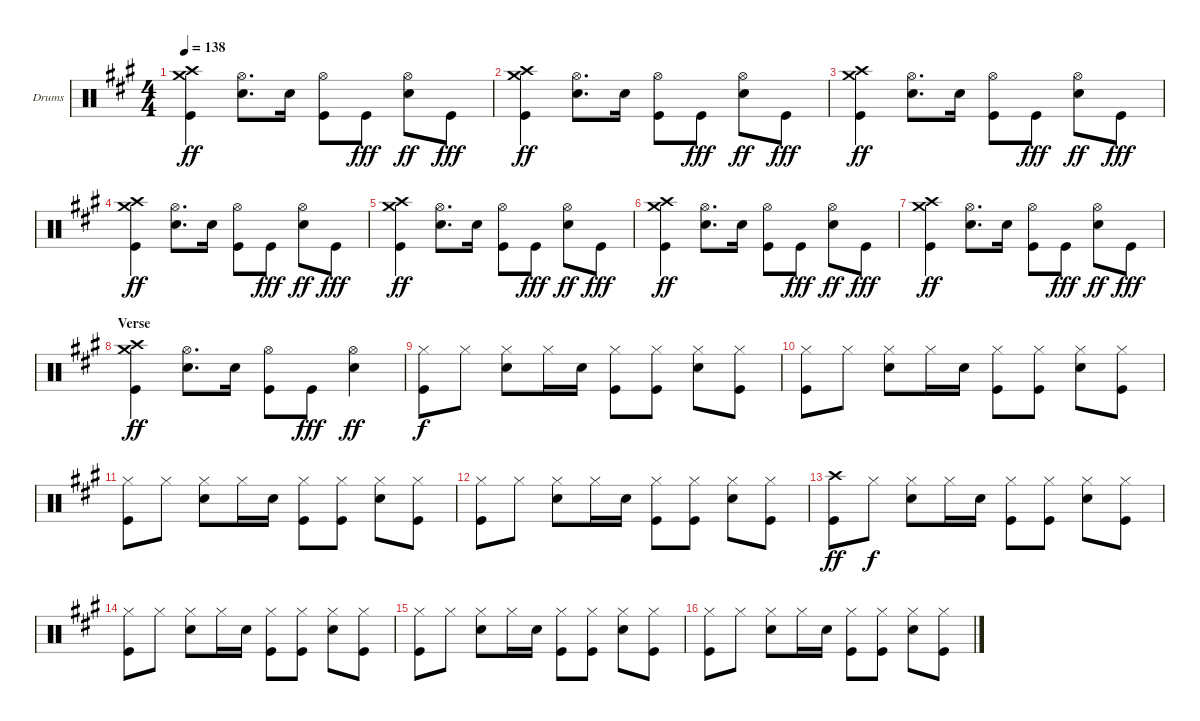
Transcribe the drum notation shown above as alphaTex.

\defaultSystemsLayout 4
\bracketExtendMode groupsimilarinstruments
\firstSystemTrackNameOrientation horizontal
\otherSystemsTrackNameOrientation horizontal
\track ("Drumkit" "Drums") {instrument percussion}
\staff {score}
\articulation defaults
\ts (4 4)
\tempo 138
\clef neutral
\scale
1.05801
\ks a
("Crash high (hit)" "Crash medium (hit)" "Kick (hit)").4{dy ff} ("Hi-Hat (open)" "Snare (hit) 2").8{d} "Snare (hit) 2".16 ("Hi-Hat (open)" "Kick (hit)").8 "Kick (hit)".8{dy fff} ("Hi-Hat (open)" "Snare (hit) 2").8{dy ff} "Kick (hit)".8{dy fff} |
\scale
0.941992 ("Crash high (hit)" "Crash medium (hit)" "Kick (hit)").4{dy ff} ("Hi-Hat (open)" "Snare (hit) 2").8{d} "Snare (hit) 2".16 ("Hi-Hat (open)" "Kick (hit)").8 "Kick (hit)".8{dy fff} ("Hi-Hat (open)" "Snare (hit) 2").8{dy ff} "Kick (hit)".8{dy fff} |
\scale
1.05801 ("Crash high (hit)" "Crash medium (hit)" "Kick (hit)").4{dy ff} ("Hi-Hat (open)" "Snare (hit) 2").8{d} "Snare (hit) 2".16 ("Hi-Hat (open)" "Kick (hit)").8 "Kick (hit)".8{dy fff} ("Hi-Hat (open)" "Snare (hit) 2").8{dy ff} "Kick (hit)".8{dy fff} |
\scale
0.941992 ("Crash high (hit)" "Crash medium (hit)" "Kick (hit)").4{dy ff} ("Hi-Hat (open)" "Snare (hit) 2").8{d} "Snare (hit) 2".16 ("Hi-Hat (open)" "Kick (hit)").8 "Kick (hit)".8{dy fff} ("Hi-Hat (open)" "Snare (hit) 2").8{dy ff} "Kick (hit)".8{dy fff} |
\scale
1.05801 ("Crash high (hit)" "Crash medium (hit)" "Kick (hit)").4{dy ff} ("Hi-Hat (open)" "Snare (hit) 2").8{d} "Snare (hit) 2".16 ("Hi-Hat (open)" "Kick (hit)").8 "Kick (hit)".8{dy fff} ("Hi-Hat (open)" "Snare (hit) 2").8{dy ff} "Kick (hit)".8{dy fff} |
\scale
0.941992 ("Crash high (hit)" "Crash medium (hit)" "Kick (hit)").4{dy ff} ("Hi-Hat (open)" "Snare (hit) 2").8{d} "Snare (hit) 2".16 ("Hi-Hat (open)" "Kick (hit)").8 "Kick (hit)".8{dy fff} ("Hi-Hat (open)" "Snare (hit) 2").8{dy ff} "Kick (hit)".8{dy fff} |
\scale
1.05801 ("Crash high (hit)" "Crash medium (hit)" "Kick (hit)").4{dy ff} ("Hi-Hat (open)" "Snare (hit) 2").8{d} "Snare (hit) 2".16 ("Hi-Hat (open)" "Kick (hit)").8 "Kick (hit)".8{dy fff} ("Hi-Hat (open)" "Snare (hit) 2").8{dy ff} "Kick (hit)".8{dy fff} |
\section ("" "Verse")
\scale
0.941992 ("Crash high (hit)" "Crash medium (hit)" "Kick (hit)").4{dy ff} ("Hi-Hat (open)" "Snare (hit) 2").8{d} "Snare (hit) 2".16 ("Hi-Hat (open)" "Kick (hit)").8 "Kick (hit)".8{dy fff} ("Hi-Hat (open)" "Snare (hit) 2").4{dy ff} |
\scale
1.05801 ("Hi-Hat (closed)" "Kick (hit)").8{dy f} "Hi-Hat (closed)".8 ("Hi-Hat (closed)" "Snare (hit) 2").8 "Hi-Hat (closed)".16 "Snare (hit) 2".16 ("Hi-Hat (closed)" "Kick (hit)").8 ("Hi-Hat (closed)" "Kick (hit)").8 ("Hi-Hat (closed)" "Snare (hit) 2").8 ("Hi-Hat (closed)" "Kick (hit)").8 |
\scale
0.941992 ("Hi-Hat (closed)" "Kick (hit)").8 "Hi-Hat (closed)".8 ("Hi-Hat (closed)" "Snare (hit) 2").8 "Hi-Hat (closed)".16 "Snare (hit) 2".16 ("Hi-Hat (closed)" "Kick (hit)").8 ("Hi-Hat (closed)" "Kick (hit)").8 ("Hi-Hat (closed)" "Snare (hit) 2").8 ("Hi-Hat (closed)" "Kick (hit)").8 |
\scale
1.05801 ("Hi-Hat (closed)" "Kick (hit)").8 "Hi-Hat (closed)".8 ("Hi-Hat (closed)" "Snare (hit) 2").8 "Hi-Hat (closed)".16 "Snare (hit) 2".16 ("Hi-Hat (closed)" "Kick (hit)").8 ("Hi-Hat (closed)" "Kick (hit)").8 ("Hi-Hat (closed)" "Snare (hit) 2").8 ("Hi-Hat (closed)" "Kick (hit)").8 |
\scale
0.941992 ("Hi-Hat (closed)" "Kick (hit)").8 "Hi-Hat (closed)".8 ("Hi-Hat (closed)" "Snare (hit) 2").8 "Hi-Hat (closed)".16 "Snare (hit) 2".16 ("Hi-Hat (closed)" "Kick (hit)").8 ("Hi-Hat (closed)" "Kick (hit)").8 ("Hi-Hat (closed)" "Snare (hit) 2").8 ("Hi-Hat (closed)" "Kick (hit)").8 |
\scale
1.05801 ("Crash high (hit)" "Kick (hit)").8{dy ff} "Hi-Hat (closed)".8{dy f} ("Hi-Hat (closed)" "Snare (hit) 2").8 "Hi-Hat (closed)".16 "Snare (hit) 2".16 ("Hi-Hat (closed)" "Kick (hit)").8 ("Hi-Hat (closed)" "Kick (hit)").8 ("Hi-Hat (closed)" "Snare (hit) 2").8 ("Hi-Hat (closed)" "Kick (hit)").8 |
\scale
0.941992 ("Hi-Hat (closed)" "Kick (hit)").8 "Hi-Hat (closed)".8 ("Hi-Hat (closed)" "Snare (hit) 2").8 "Hi-Hat (closed)".16 "Snare (hit) 2".16 ("Hi-Hat (closed)" "Kick (hit)").8 ("Hi-Hat (closed)" "Kick (hit)").8 ("Hi-Hat (closed)" "Snare (hit) 2").8 ("Hi-Hat (closed)" "Kick (hit)").8 |
\scale
1.05801 ("Hi-Hat (closed)" "Kick (hit)").8 "Hi-Hat (closed)".8 ("Hi-Hat (closed)" "Snare (hit) 2").8 "Hi-Hat (closed)".16 "Snare (hit) 2".16 ("Hi-Hat (closed)" "Kick (hit)").8 ("Hi-Hat (closed)" "Kick (hit)").8 ("Hi-Hat (closed)" "Snare (hit) 2").8 ("Hi-Hat (closed)" "Kick (hit)").8 |
\scale
0.941992 ("Hi-Hat (closed)" "Kick (hit)").8 "Hi-Hat (closed)".8 ("Hi-Hat (closed)" "Snare (hit) 2").8 "Hi-Hat (closed)".16 "Snare (hit) 2".16 ("Hi-Hat (closed)" "Kick (hit)").8 ("Hi-Hat (closed)" "Kick (hit)").8 ("Hi-Hat (closed)" "Snare (hit) 2").8 ("Hi-Hat (closed)" "Kick (hit)").8
